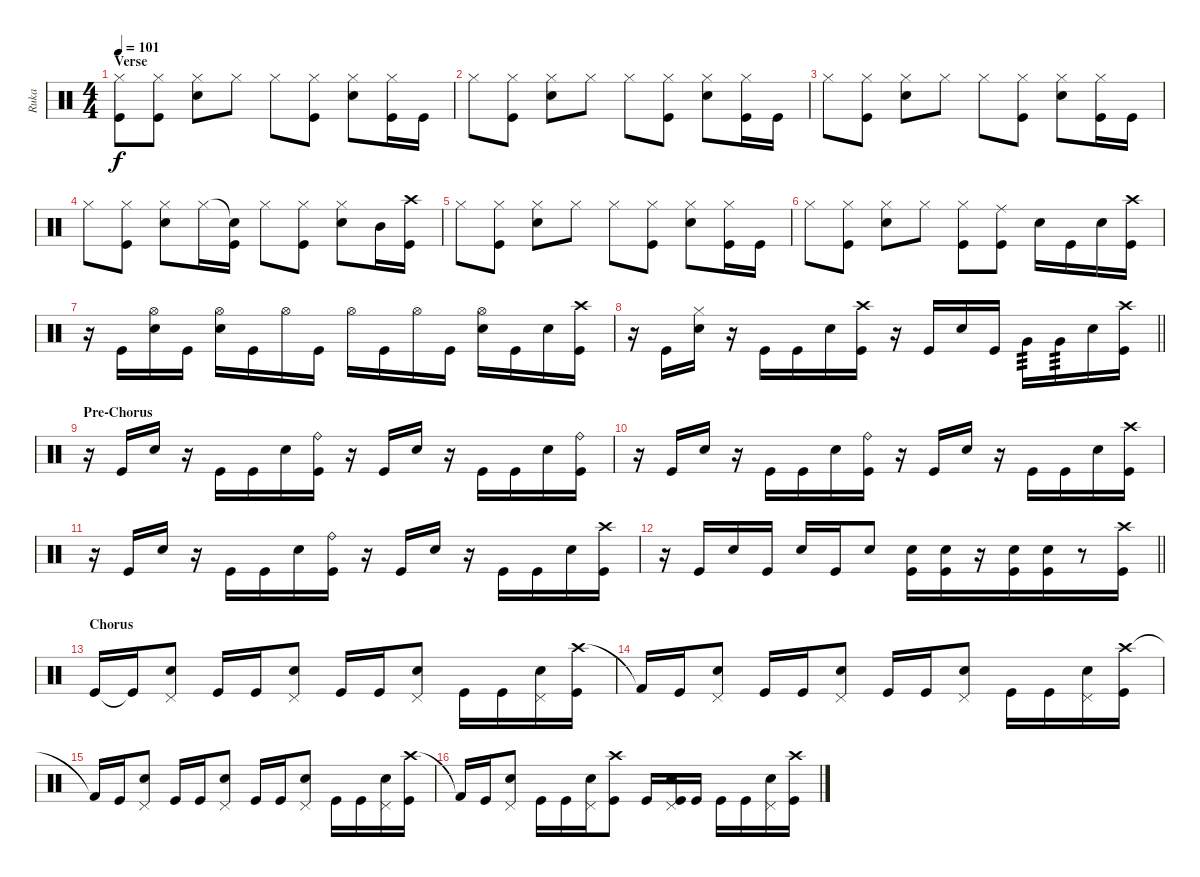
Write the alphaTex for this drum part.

\track ("Ruka" "Ruka") {instrument percussion}
\staff {score}
\articulation defaults
\ts (4 4)
\section ("" "Verse")
\tempo 101
\clef neutral
\ks c
("Hi-Hat (closed)" "Kick (hit)").8{dy f} ("Hi-Hat (closed)" "Kick (hit)").8 ("Hi-Hat (closed)" "Snare (hit) 2").8 "Hi-Hat (closed)".8 "Hi-Hat (closed)".8 ("Hi-Hat (closed)" "Kick (hit)").8 ("Hi-Hat (closed)" "Snare (hit) 2").8 ("Hi-Hat (closed)" "Kick (hit)").16 "Kick (hit)".16 |
"Hi-Hat (closed)".8 ("Hi-Hat (closed)" "Kick (hit)").8 ("Hi-Hat (closed)" "Snare (hit) 2").8 "Hi-Hat (closed)".8 "Hi-Hat (closed)".8 ("Hi-Hat (closed)" "Kick (hit)").8 ("Hi-Hat (closed)" "Snare (hit) 2").8 ("Hi-Hat (closed)" "Kick (hit)").16 "Kick (hit)".16 |
"Hi-Hat (closed)".8 ("Hi-Hat (closed)" "Kick (hit)").8 ("Hi-Hat (closed)" "Snare (hit) 2").8 "Hi-Hat (closed)".8 "Hi-Hat (closed)".8 ("Hi-Hat (closed)" "Kick (hit)").8 ("Hi-Hat (closed)" "Snare (hit) 2").8 ("Hi-Hat (closed)" "Kick (hit)").16 "Kick (hit)".16 |
"Hi-Hat (closed)".8 ("Hi-Hat (closed)" "Kick (hit)").8 ("Hi-Hat (closed)" "Snare (hit) 2").8 "Hi-Hat (closed)".16 ("Snare (hit)"{t} "Kick (hit)").16 "Hi-Hat (closed)".8 ("Hi-Hat (closed)" "Kick (hit)").8 ("Hi-Hat (closed)" "Snare (hit) 2").8 "Mid Tom (hit)".16 ("Crash high (hit)" "Kick (hit)").16 |
"Hi-Hat (closed)".8 ("Hi-Hat (closed)" "Kick (hit)").8 ("Hi-Hat (closed)" "Snare (hit) 2").8 "Hi-Hat (closed)".8 "Hi-Hat (closed)".8 ("Hi-Hat (closed)" "Kick (hit)").8 ("Hi-Hat (closed)" "Snare (hit) 2").8 ("Hi-Hat (closed)" "Kick (hit)").16 "Kick (hit)".16 |
"Hi-Hat (closed)".8 ("Hi-Hat (closed)" "Kick (hit)").8 ("Hi-Hat (closed)" "Snare (hit) 2").8 "Hi-Hat (closed)".8 ("Hi-Hat (closed)" "Kick (hit)").8 ("Ride (middle)" "Kick (hit)").8 "Snare (hit) 2".16 "Kick (hit)".16 "Snare (hit) 2".16 ("Crash high (hit)" "Kick (hit)").16 |
r.16 "Kick (hit)".16 ("Hi-Hat (open)" "Snare (hit) 2").16 "Kick (hit)".16 ("Hi-Hat (open)" "Snare (hit) 2").16 "Kick (hit)".16 "Hi-Hat (open)".16 "Kick (hit)".16 "Hi-Hat (open)".16 "Kick (hit)".16 "Hi-Hat (open)".16 "Kick (hit)".16 ("Hi-Hat (open)" "Snare (hit) 2").16 "Kick (hit)".16 "Snare (hit) 2".16 ("Crash high (hit)" "Kick (hit)").16 |
\barLineRight lightlight
r.16 "Kick (hit)".16 ("Hi-Hat (closed)" "Snare (hit) 2").16 r.16 "Kick (hit)".16 "Kick (hit)".16 "Snare (hit) 2".16 ("Crash high (hit)" "Kick (hit)").16 r.16 "Kick (hit)".16 "Snare (hit) 2".16 "Kick (hit)".16 "Very Low Tom (hit)".16{tp 3} "Very Low Tom (hit)".16{tp 3} "Snare (hit) 2".16 ("Crash high (hit)" "Kick (hit)").16 |
\section ("" "Pre-Chorus")
r.16 "Kick (hit)".16 "Snare (hit) 2".16 r.16 "Kick (hit)".16 "Kick (hit)".16 "Snare (hit) 2".16 ("Ride (bell)" "Kick (hit)").16 r.16 "Kick (hit)".16 "Snare (hit) 2".16 r.16 "Kick (hit)".16 "Kick (hit)".16 "Snare (hit) 2".16 ("Ride (bell)" "Kick (hit)").16 |
r.16 "Kick (hit)".16 "Snare (hit) 2".16 r.16 "Kick (hit)".16 "Kick (hit)".16 "Snare (hit) 2".16 ("Ride (bell)" "Kick (hit)").16 r.16 "Kick (hit)".16 "Snare (hit) 2".16 r.16 "Kick (hit)".16 "Kick (hit)".16 "Snare (hit) 2".16 ("Crash high (hit)" "Kick (hit)").16 |
r.16 "Kick (hit)".16 "Snare (hit) 2".16 r.16 "Kick (hit)".16 "Kick (hit)".16 "Snare (hit) 2".16 ("Ride (bell)" "Kick (hit)").16 r.16 "Kick (hit)".16 "Snare (hit) 2".16 r.16 "Kick (hit)".16 "Kick (hit)".16 "Snare (hit) 2".16 ("Crash high (hit)" "Kick (hit)").16 |
\barLineRight lightlight
r.16 "Kick (hit)".16 "Snare (hit) 2".16 "Kick (hit)".16 "Snare (hit) 2".16 "Kick (hit)".16 "Snare (hit) 2".8 ("Snare (hit) 2" "Kick (hit)").16 ("Snare (hit) 2" "Kick (hit)").16 r.16 ("Snare (hit) 2" "Kick (hit)").16{beam merge} ("Snare (hit) 2" "Kick (hit)").16 r.8 ("Crash high (hit)" "Kick (hit)").16 |
\section ("" "Chorus")
"Kick (hit)".16 "Kick (hit)"{t}.16 ("Pedal Hi-Hat (hit)" "Snare (hit) 2").8 "Kick (hit)".16 "Kick (hit)".16 ("Pedal Hi-Hat (hit)" "Snare (hit) 2").8 "Kick (hit)".16 "Kick (hit)".16 ("Pedal Hi-Hat (hit)" "Snare (hit) 2").8 "Kick (hit)".16 "Kick (hit)".16 ("Pedal Hi-Hat (hit)" "Snare (hit) 2").16 ("Crash high (hit)" "Kick (hit)").16 |
"Kick (hit) 2"{t}.16 "Kick (hit)".16 ("Pedal Hi-Hat (hit)" "Snare (hit) 2").8 "Kick (hit)".16 "Kick (hit)".16 ("Pedal Hi-Hat (hit)" "Snare (hit) 2").8 "Kick (hit)".16 "Kick (hit)".16 ("Pedal Hi-Hat (hit)" "Snare (hit) 2").8 "Kick (hit)".16 "Kick (hit)".16 ("Pedal Hi-Hat (hit)" "Snare (hit) 2").16 ("Crash high (hit)" "Kick (hit)").16 |
"Kick (hit) 2"{t}.16 "Kick (hit)".16 ("Pedal Hi-Hat (hit)" "Snare (hit) 2").8 "Kick (hit)".16 "Kick (hit)".16 ("Pedal Hi-Hat (hit)" "Snare (hit) 2").8 "Kick (hit)".16 "Kick (hit)".16 ("Pedal Hi-Hat (hit)" "Snare (hit) 2").8 "Kick (hit)".16 "Kick (hit)".16 ("Pedal Hi-Hat (hit)" "Snare (hit) 2").16 ("Crash high (hit)" "Kick (hit)").16 |
"Kick (hit) 2"{t}.16 "Kick (hit)".16 ("Pedal Hi-Hat (hit)" "Snare (hit) 2").8 "Kick (hit)".16 "Kick (hit)".16 ("Pedal Hi-Hat (hit)" "Snare (hit) 2").16 ("Crash high (hit)" "Kick (hit)").8 "Kick (hit)".16 ("Pedal Hi-Hat (hit)" "Snare (hit) 2" "Kick (hit)").16 "Kick (hit)".16 "Kick (hit)".16 "Kick (hit)".16 ("Pedal Hi-Hat (hit)" "Snare (hit) 2").16 ("Crash high (hit)" "Kick (hit)").16
